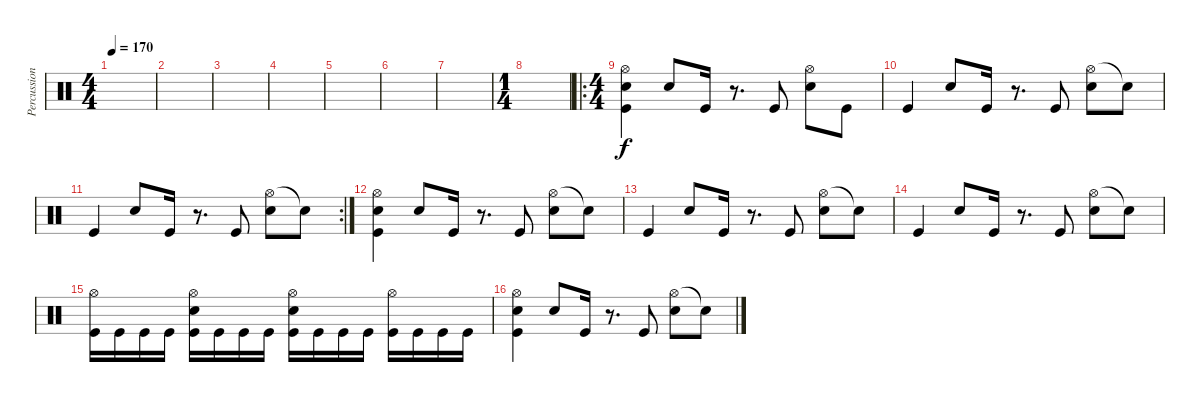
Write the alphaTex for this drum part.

\track ("Percussions" "Percussion") {instrument percussion}
\staff {score}
\articulation defaults
\ts (4 4)
\tempo 170
\clef neutral
\ks c
|
|
|
|
|
|
|
\ts (1 4)
|
\ro
\ts (4 4)
("Hi-Hat (open)" "Snare (hit) 2" "Kick (hit)").4 "Electric Snare (hit)".8 "Kick (hit)".16 r.8{d} "Kick (hit)".8 ("Hi-Hat (open)" "Electric Snare (hit)").8 "Kick (hit)".8 |
"Kick (hit)".4 "Electric Snare (hit)".8 "Kick (hit)".16 r.8{d} "Kick (hit)".8 ("Hi-Hat (open)" "Electric Snare (hit)").8 "Snare (hit)"{t}.8 |
\rc 2 "Kick (hit)".4 "Electric Snare (hit)".8 "Kick (hit)".16
r.8{d} "Kick (hit)".8 ("Hi-Hat (open)" "Electric Snare (hit)").8 "Snare (hit)"{t}.8 |
("Hi-Hat (open)" "Snare (hit) 2" "Kick (hit)").4 "Electric Snare (hit)".8 "Kick (hit)".16 r.8{d} "Kick (hit)".8 ("Hi-Hat (open)" "Electric Snare (hit)").8 "Snare (hit)"{t}.8 |
"Kick (hit)".4 "Electric Snare (hit)".8 "Kick (hit)".16 r.8{d} "Kick (hit)".8 ("Hi-Hat (open)" "Electric Snare (hit)").8 "Snare (hit)"{t}.8 |
"Kick (hit)".4 "Electric Snare (hit)".8 "Kick (hit)".16 r.8{d} "Kick (hit)".8 ("Hi-Hat (open)" "Electric Snare (hit)").8 "Snare (hit)"{t}.8 |
("Hi-Hat (open)" "Kick (hit)").16 "Kick (hit)".16 "Kick (hit)".16 "Kick (hit)".16 ("Hi-Hat (open)" "Electric Snare (hit)" "Kick (hit)").16 "Kick (hit)".16 "Kick (hit)".16 "Kick (hit)".16 ("Hi-Hat (open)" "Electric Snare (hit)" "Kick (hit)").16 "Kick (hit)".16 "Kick (hit)".16 "Kick (hit)".16 ("Hi-Hat (open)" "Kick (hit)").16 "Kick (hit)".16 "Kick (hit)".16 "Kick (hit)".16 |
("Hi-Hat (open)" "Snare (hit) 2" "Kick (hit)").4 "Electric Snare (hit)".8 "Kick (hit)".16 r.8{d} "Kick (hit)".8 ("Hi-Hat (open)" "Electric Snare (hit)").8 "Snare (hit)"{t}.8
